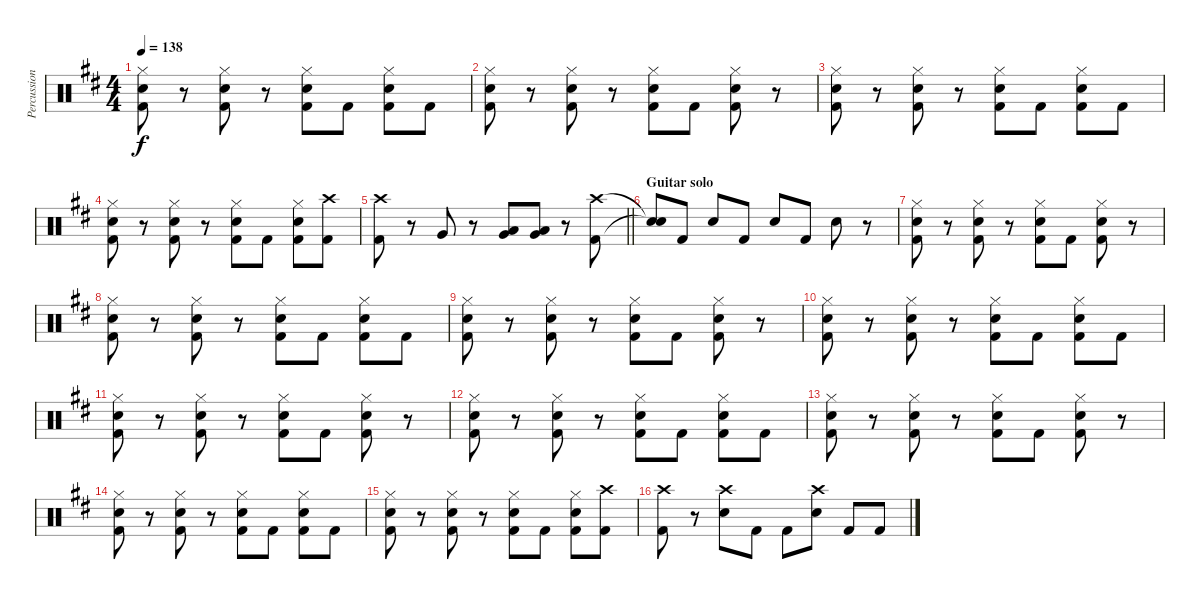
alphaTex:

\track ("Percussion" "Percussion") {instrument percussion}
\staff {score}
\articulation defaults
\ts (4 4)
\tempo 138
\clef neutral
\ks d
("Hi-Hat (closed)" "Snare (hit) 2" "Kick (hit) 2").8{dy f} r.8 ("Hi-Hat (closed)" "Snare (hit) 2" "Kick (hit) 2").8 r.8 ("Hi-Hat (closed)" "Snare (hit) 2" "Kick (hit) 2").8 "Kick (hit) 2".8 ("Hi-Hat (closed)" "Snare (hit) 2" "Kick (hit) 2").8 "Kick (hit) 2".8 |
("Hi-Hat (closed)" "Snare (hit) 2" "Kick (hit) 2").8 r.8 ("Hi-Hat (closed)" "Snare (hit) 2" "Kick (hit) 2").8 r.8 ("Hi-Hat (closed)" "Snare (hit) 2" "Kick (hit) 2").8 "Kick (hit) 2".8 ("Hi-Hat (closed)" "Snare (hit) 2" "Kick (hit) 2").8 r.8 |
("Hi-Hat (closed)" "Snare (hit) 2" "Kick (hit) 2").8 r.8 ("Hi-Hat (closed)" "Snare (hit) 2" "Kick (hit) 2").8 r.8 ("Hi-Hat (closed)" "Snare (hit) 2" "Kick (hit) 2").8 "Kick (hit) 2".8 ("Hi-Hat (closed)" "Snare (hit) 2" "Kick (hit) 2").8 "Kick (hit) 2".8 |
("Hi-Hat (closed)" "Snare (hit) 2" "Kick (hit) 2").8 r.8 ("Hi-Hat (closed)" "Snare (hit) 2" "Kick (hit) 2").8 r.8 ("Hi-Hat (closed)" "Snare (hit) 2" "Kick (hit) 2").8 "Kick (hit) 2".8 ("Hi-Hat (closed)" "Snare (hit) 2" "Kick (hit) 2").8 ("Crash high (hit)" "Kick (hit) 2").8 |
\barLineRight lightlight
("Crash high (hit)" "Kick (hit) 2").8 r.8 "Very Low Tom (hit)".8 r.8 ("Very Low Tom (hit)" "Low Floor Tom (hit)").8 ("Very Low Tom (hit)" "Low Floor Tom (hit)").8 r.8 ("Crash high (hit)" "Kick (hit) 2").8 |
\section ("" "Guitar solo")
("Snare (hit)"{t} "Snare (hit)"{t}).8 "Kick (hit) 2".8 "Snare (hit) 2".8 "Kick (hit) 2".8 "Snare (hit) 2".8 "Kick (hit) 2".8 "Snare (hit) 2".8 r.8 |
("Hi-Hat (closed)" "Snare (hit) 2" "Kick (hit) 2").8 r.8 ("Hi-Hat (closed)" "Snare (hit) 2" "Kick (hit) 2").8 r.8 ("Hi-Hat (closed)" "Snare (hit) 2" "Kick (hit) 2").8 "Kick (hit) 2".8 ("Hi-Hat (closed)" "Snare (hit) 2" "Kick (hit) 2").8 r.8 |
("Hi-Hat (closed)" "Snare (hit) 2" "Kick (hit) 2").8 r.8 ("Hi-Hat (closed)" "Snare (hit) 2" "Kick (hit) 2").8 r.8 ("Hi-Hat (closed)" "Snare (hit) 2" "Kick (hit) 2").8 "Kick (hit) 2".8 ("Hi-Hat (closed)" "Snare (hit) 2" "Kick (hit) 2").8 "Kick (hit) 2".8 |
("Hi-Hat (closed)" "Snare (hit) 2" "Kick (hit) 2").8 r.8 ("Hi-Hat (closed)" "Snare (hit) 2" "Kick (hit) 2").8 r.8 ("Hi-Hat (closed)" "Snare (hit) 2" "Kick (hit) 2").8 "Kick (hit) 2".8 ("Hi-Hat (closed)" "Snare (hit) 2" "Kick (hit) 2").8 r.8 |
("Hi-Hat (closed)" "Snare (hit) 2" "Kick (hit) 2").8 r.8 ("Hi-Hat (closed)" "Snare (hit) 2" "Kick (hit) 2").8 r.8 ("Hi-Hat (closed)" "Snare (hit) 2" "Kick (hit) 2").8 "Kick (hit) 2".8 ("Hi-Hat (closed)" "Snare (hit) 2" "Kick (hit) 2").8 "Kick (hit) 2".8 |
("Hi-Hat (closed)" "Snare (hit) 2" "Kick (hit) 2").8 r.8 ("Hi-Hat (closed)" "Snare (hit) 2" "Kick (hit) 2").8 r.8 ("Hi-Hat (closed)" "Snare (hit) 2" "Kick (hit) 2").8 "Kick (hit) 2".8 ("Hi-Hat (closed)" "Snare (hit) 2" "Kick (hit) 2").8 r.8 |
("Hi-Hat (closed)" "Snare (hit) 2" "Kick (hit) 2").8 r.8 ("Hi-Hat (closed)" "Snare (hit) 2" "Kick (hit) 2").8 r.8 ("Hi-Hat (closed)" "Snare (hit) 2" "Kick (hit) 2").8 "Kick (hit) 2".8 ("Hi-Hat (closed)" "Snare (hit) 2" "Kick (hit) 2").8 "Kick (hit) 2".8 |
("Hi-Hat (closed)" "Snare (hit) 2" "Kick (hit) 2").8 r.8 ("Hi-Hat (closed)" "Snare (hit) 2" "Kick (hit) 2").8 r.8 ("Hi-Hat (closed)" "Snare (hit) 2" "Kick (hit) 2").8 "Kick (hit) 2".8 ("Hi-Hat (closed)" "Snare (hit) 2" "Kick (hit) 2").8 r.8 |
("Hi-Hat (closed)" "Snare (hit) 2" "Kick (hit) 2").8 r.8 ("Hi-Hat (closed)" "Snare (hit) 2" "Kick (hit) 2").8 r.8 ("Hi-Hat (closed)" "Snare (hit) 2" "Kick (hit) 2").8 "Kick (hit) 2".8 ("Hi-Hat (closed)" "Snare (hit) 2" "Kick (hit) 2").8 "Kick (hit) 2".8 |
("Hi-Hat (closed)" "Snare (hit) 2" "Kick (hit) 2").8 r.8 ("Hi-Hat (closed)" "Snare (hit) 2" "Kick (hit) 2").8 r.8 ("Hi-Hat (closed)" "Snare (hit) 2" "Kick (hit) 2").8 "Kick (hit) 2".8 ("Hi-Hat (closed)" "Snare (hit) 2" "Kick (hit) 2").8 ("Crash high (hit)" "Kick (hit) 2").8 |
("Crash high (hit)" "Kick (hit) 2").8 r.8 ("Crash high (hit)" "Snare (hit) 2").8 "Kick (hit) 2".8 "Kick (hit) 2".8 ("Crash high (hit)" "Snare (hit) 2").8 "Kick (hit) 2".8 "Kick (hit) 2".8
